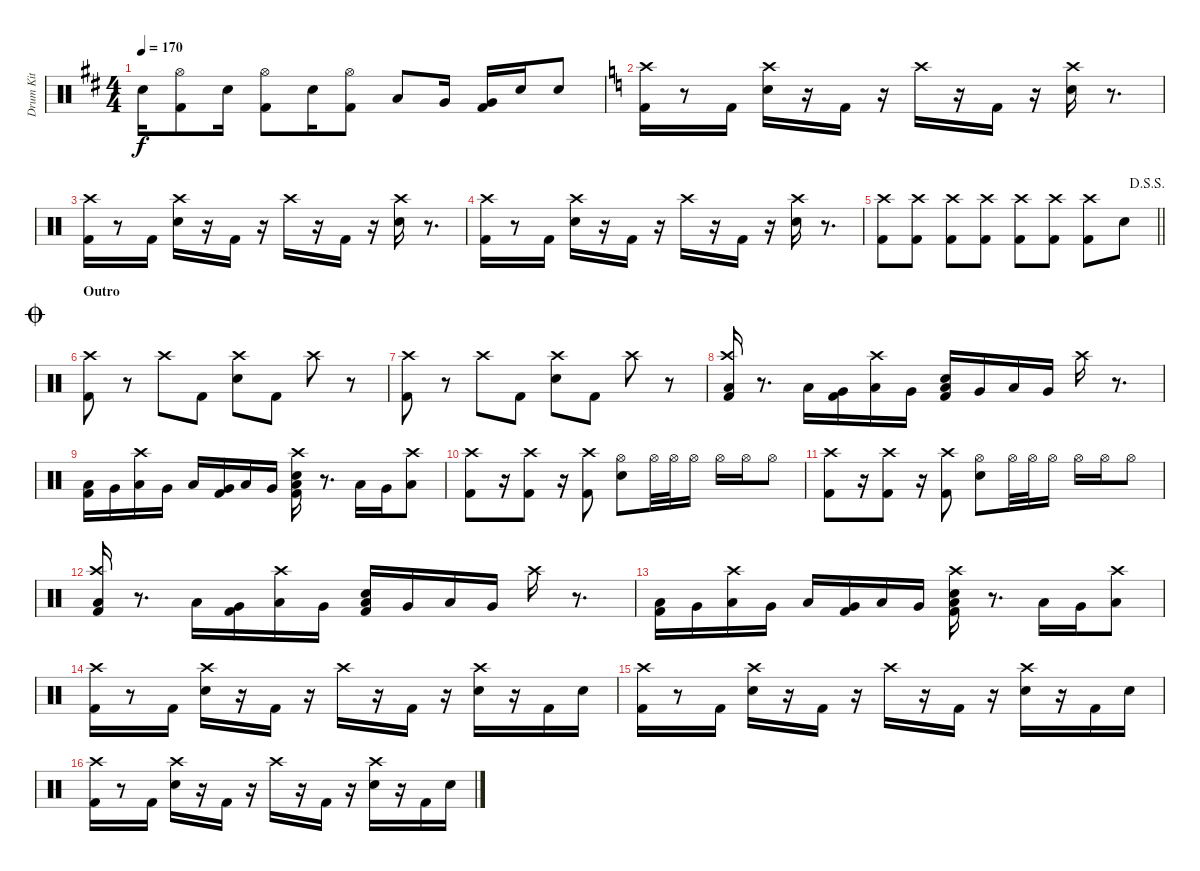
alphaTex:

\track ("Drum Kit" "Drum Kit") {mute instrument percussion}
\staff {score}
\articulation defaults
\ts (4 4)
\tempo 170
\clef neutral
\ks d "Electric Snare (hit)".16{dy f}
("Hi-Hat (open)" "Kick (hit) 2").8 "Electric Snare (hit)".16 ("Hi-Hat (open)" "Kick (hit) 2").8 "Electric Snare (hit)".16 ("Hi-Hat (open)" "Kick (hit) 2").8 "Low Tom (hit)".8 "Very Low Tom (hit)".16 ("Very Low Tom (hit)" "Kick (hit) 2").16 "Electric Snare (hit)".16 "Electric Snare (hit)".8 |
\ks c
("Crash high (hit)" "Kick (hit) 2").16 r.8 "Kick (hit) 2".16 ("Crash high (hit)" "Electric Snare (hit)").16 r.16 "Kick (hit) 2".16 r.16 "Crash high (hit)".16 r.16 "Kick (hit) 2".16 r.16 ("Crash high (hit)" "Electric Snare (hit)").16 r.8{d} |
("Crash high (hit)" "Kick (hit) 2").16 r.8 "Kick (hit) 2".16 ("Crash high (hit)" "Electric Snare (hit)").16 r.16 "Kick (hit) 2".16 r.16 "Crash high (hit)".16 r.16 "Kick (hit) 2".16 r.16 ("Crash high (hit)" "Electric Snare (hit)").16 r.8{d} |
("Crash high (hit)" "Kick (hit) 2").16 r.8 "Kick (hit) 2".16 ("Crash high (hit)" "Electric Snare (hit)").16 r.16 "Kick (hit) 2".16 r.16 "Crash high (hit)".16 r.16 "Kick (hit) 2".16 r.16 ("Crash high (hit)" "Electric Snare (hit)").16 r.8{d} |
\jump dalsegnosegno
\barLineRight lightlight
("Crash high (hit)" "Kick (hit) 2").8 ("Crash high (hit)" "Kick (hit) 2").8 ("Crash high (hit)" "Kick (hit) 2").8 ("Crash high (hit)" "Kick (hit) 2").8 ("Crash high (hit)" "Kick (hit) 2").8 ("Crash high (hit)" "Kick (hit) 2").8 ("Crash high (hit)" "Kick (hit) 2").8 "Electric Snare (hit)".8 |
\section ("" "Outro")
\jump coda
("Crash high (hit)" "Kick (hit) 2").8 r.8 "Crash high (hit)".8 "Kick (hit) 2".8 ("Crash high (hit)" "Electric Snare (hit)").8 "Kick (hit) 2".8 "Crash high (hit)".8 r.8 |
("Crash high (hit)" "Kick (hit) 2").8 r.8 "Crash high (hit)".8 "Kick (hit) 2".8 ("Crash high (hit)" "Electric Snare (hit)").8 "Kick (hit) 2".8 "Crash high (hit)".8 r.8 |
("Crash high (hit)" "Low Floor Tom (hit)" "Kick (hit) 2").16 r.8{d} "Low Floor Tom (hit)".16 ("Very Low Tom (hit)" "Kick (hit) 2").16 ("Crash high (hit)" "Low Floor Tom (hit)").16 "Very Low Tom (hit)".16 ("Electric Snare (hit)" "Low Floor Tom (hit)" "Kick (hit) 2").16 "Very Low Tom (hit)".16 "Low Floor Tom (hit)".16 "Very Low Tom (hit)".16 "Crash high (hit)".16 r.8{d} |
("Low Floor Tom (hit)" "Kick (hit) 2").16 "Very Low Tom (hit)".16 ("Crash high (hit)" "Low Floor Tom (hit)").16 "Very Low Tom (hit)".16 "Low Floor Tom (hit)".16 ("Very Low Tom (hit)" "Kick (hit) 2").16 "Low Floor Tom (hit)".16 "Very Low Tom (hit)".16 ("Crash high (hit)" "Electric Snare (hit)" "Low Floor Tom (hit)" "Kick (hit) 2").16 r.8{d} "Low Floor Tom (hit)".16 "Very Low Tom (hit)".16 ("Crash high (hit)" "Low Floor Tom (hit)").8 |
("Crash high (hit)" "Kick (hit) 2").8 r.16 ("Crash high (hit)" "Kick (hit) 2").8 r.16 ("Crash high (hit)" "Kick (hit) 2").8 ("Hi-Hat (open)" "Electric Snare (hit)").8 "Hi-Hat (open)".32 "Hi-Hat (open)".32 "Hi-Hat (open)".16 "Hi-Hat (open)".16 "Hi-Hat (open)".16 "Hi-Hat (open)".8 |
("Crash high (hit)" "Kick (hit) 2").8 r.16 ("Crash high (hit)" "Kick (hit) 2").8 r.16 ("Crash high (hit)" "Kick (hit) 2").8 ("Hi-Hat (open)" "Electric Snare (hit)").8 "Hi-Hat (open)".32 "Hi-Hat (open)".32 "Hi-Hat (open)".16 "Hi-Hat (open)".16 "Hi-Hat (open)".16 "Hi-Hat (open)".8 |
("Crash high (hit)" "Low Floor Tom (hit)" "Kick (hit) 2").16 r.8{d} "Low Floor Tom (hit)".16 ("Very Low Tom (hit)" "Kick (hit) 2").16 ("Crash high (hit)" "Low Floor Tom (hit)").16 "Very Low Tom (hit)".16 ("Electric Snare (hit)" "Low Floor Tom (hit)" "Kick (hit) 2").16 "Very Low Tom (hit)".16 "Low Floor Tom (hit)".16 "Very Low Tom (hit)".16 "Crash high (hit)".16 r.8{d} |
("Low Floor Tom (hit)" "Kick (hit) 2").16 "Very Low Tom (hit)".16 ("Crash high (hit)" "Low Floor Tom (hit)").16 "Very Low Tom (hit)".16 "Low Floor Tom (hit)".16 ("Very Low Tom (hit)" "Kick (hit) 2").16 "Low Floor Tom (hit)".16 "Very Low Tom (hit)".16 ("Crash high (hit)" "Electric Snare (hit)" "Low Floor Tom (hit)" "Kick (hit) 2").16 r.8{d} "Low Floor Tom (hit)".16 "Very Low Tom (hit)".16 ("Crash high (hit)" "Low Floor Tom (hit)").8 |
("Crash high (hit)" "Kick (hit) 2").16 r.8 "Kick (hit) 2".16 ("Crash high (hit)" "Electric Snare (hit)").16 r.16 "Kick (hit) 2".16 r.16 "Crash high (hit)".16 r.16 "Kick (hit) 2".16 r.16 ("Crash high (hit)" "Electric Snare (hit)").16 r.16 "Kick (hit) 2".16 "Electric Snare (hit)".16 |
("Crash high (hit)" "Kick (hit) 2").16 r.8 "Kick (hit) 2".16 ("Crash high (hit)" "Electric Snare (hit)").16 r.16 "Kick (hit) 2".16 r.16 "Crash high (hit)".16 r.16 "Kick (hit) 2".16 r.16 ("Crash high (hit)" "Electric Snare (hit)").16 r.16 "Kick (hit) 2".16 "Electric Snare (hit)".16 |
("Crash high (hit)" "Kick (hit) 2").16 r.8 "Kick (hit) 2".16 ("Crash high (hit)" "Electric Snare (hit)").16 r.16 "Kick (hit) 2".16 r.16 "Crash high (hit)".16 r.16 "Kick (hit) 2".16 r.16 ("Crash high (hit)" "Electric Snare (hit)").16 r.16 "Kick (hit) 2".16 "Electric Snare (hit)".16
